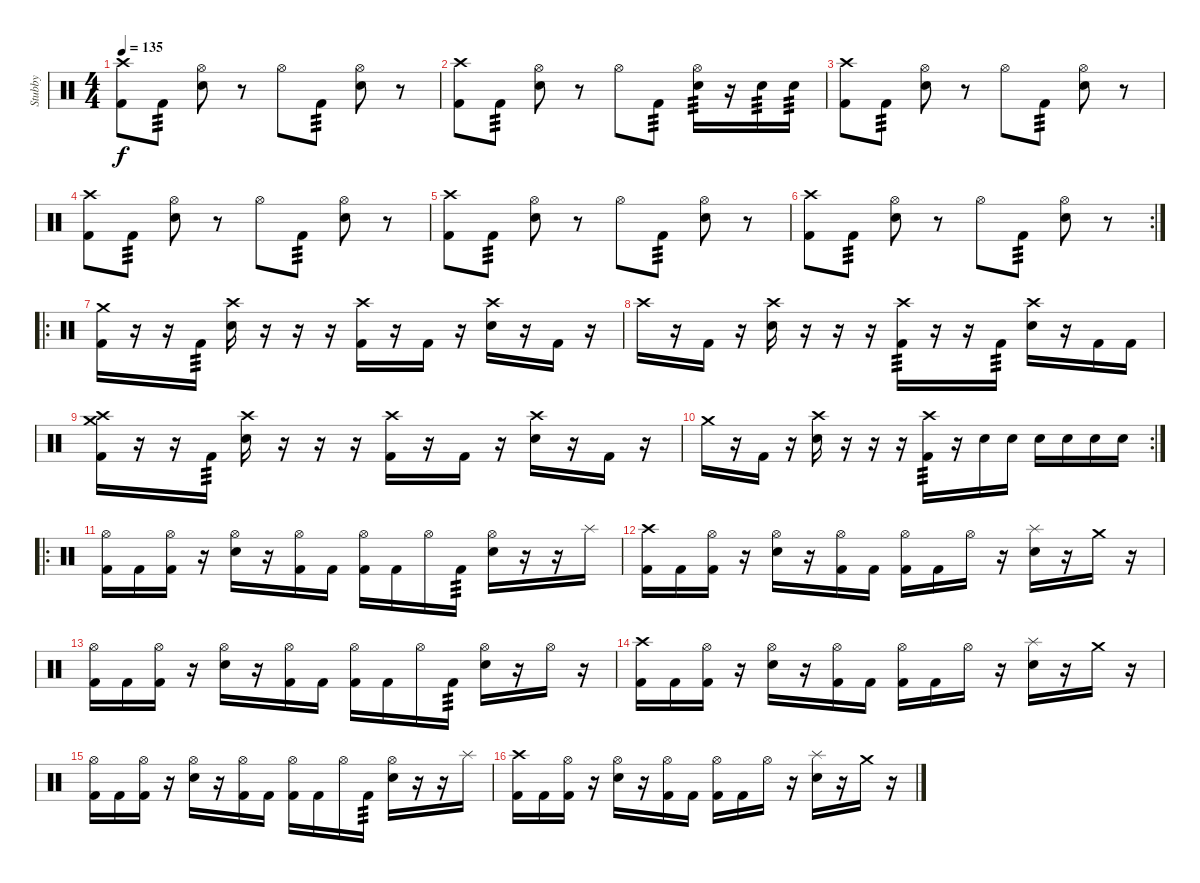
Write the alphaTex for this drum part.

\track ("Stubby" "Stubby") {instrument percussion}
\staff {score}
\articulation defaults
\ts (4 4)
\tempo 135
\clef neutral
\ks c
("Crash high (hit)" "Kick (hit) 2").8{dy f} "Kick (hit) 2".8{tp 3} ("Hi-Hat (open)" "Electric Snare (hit)").8 r.8 "Hi-Hat (open)".8 "Kick (hit) 2".8{tp 3} ("Hi-Hat (open)" "Electric Snare (hit)").8 r.8 |
("Crash high (hit)" "Kick (hit) 2").8 "Kick (hit) 2".8{tp 3} ("Hi-Hat (open)" "Electric Snare (hit)").8 r.8 "Hi-Hat (open)".8 "Kick (hit) 2".8{tp 3} ("Hi-Hat (open)" "Electric Snare (hit)").16{tp 3} r.16 "Electric Snare (hit)".16{tp 3} "Electric Snare (hit)".16{tp 3} |
("Crash high (hit)" "Kick (hit) 2").8 "Kick (hit) 2".8{tp 3} ("Hi-Hat (open)" "Electric Snare (hit)").8 r.8 "Hi-Hat (open)".8 "Kick (hit) 2".8{tp 3} ("Hi-Hat (open)" "Electric Snare (hit)").8 r.8 |
("Crash high (hit)" "Kick (hit) 2").8 "Kick (hit) 2".8{tp 3} ("Hi-Hat (open)" "Electric Snare (hit)").8 r.8 "Hi-Hat (open)".8 "Kick (hit) 2".8{tp 3} ("Hi-Hat (open)" "Electric Snare (hit)").8 r.8 |
("Crash high (hit)" "Kick (hit) 2").8 "Kick (hit) 2".8{tp 3} ("Hi-Hat (open)" "Electric Snare (hit)").8 r.8 "Hi-Hat (open)".8 "Kick (hit) 2".8{tp 3} ("Hi-Hat (open)" "Electric Snare (hit)").8 r.8 |
\rc 2
("Crash high (hit)" "Kick (hit) 2").8 "Kick (hit) 2".8{tp 3} ("Hi-Hat (open)" "Electric Snare (hit)").8 r.8 "Hi-Hat (open)".8 "Kick (hit) 2".8{tp 3} ("Hi-Hat (open)" "Electric Snare (hit)").8 r.8 |
\ro
("Crash medium (hit)" "Kick (hit) 2").16 r.16 r.16 "Kick (hit) 2".16{tp 3} ("Crash high (hit)" "Electric Snare (hit)").16 r.16 r.16 r.16 ("Crash high (hit)" "Kick (hit) 2").16 r.16 "Kick (hit) 2".16 r.16 ("Crash high (hit)" "Electric Snare (hit)").16 r.16 "Kick (hit) 2".16 r.16 |
"Crash high (hit)".16 r.16 "Kick (hit) 2".16 r.16 ("Crash high (hit)" "Electric Snare (hit)").16 r.16 r.16 r.16 ("Crash high (hit)" "Kick (hit) 2").16{tp 3} r.16 r.16 "Kick (hit) 2".16{tp 3} ("Crash high (hit)" "Electric Snare (hit)").16 r.16 "Kick (hit) 2".16 "Kick (hit) 2".16 |
("Crash medium (hit)" "Crash high (hit)" "Kick (hit) 2").16 r.16 r.16 "Kick (hit) 2".16{tp 3} ("Crash high (hit)" "Electric Snare (hit)").16 r.16 r.16 r.16 ("Crash high (hit)" "Kick (hit) 2").16 r.16 "Kick (hit) 2".16 r.16 ("Crash high (hit)" "Electric Snare (hit)").16 r.16 "Kick (hit) 2".16 r.16 |
\rc 2 "Crash medium (hit)".16
r.16 "Kick (hit) 2".16 r.16 ("Crash high (hit)" "Electric Snare (hit)").16 r.16 r.16 r.16 ("Crash high (hit)" "Kick (hit) 2").16{tp 3} r.16 "Electric Snare (hit)".16 "Electric Snare (hit)".16 "Electric Snare (hit)".16 "Electric Snare (hit)".16 "Electric Snare (hit)".16 "Electric Snare (hit)".16 |
\ro
("Hi-Hat (open)" "Kick (hit) 2").16 "Kick (hit) 2".16 ("Hi-Hat (open)" "Kick (hit) 2").16 r.16 ("Hi-Hat (open)" "Electric Snare (hit)").16 r.16 ("Hi-Hat (open)" "Kick (hit) 2").16 "Kick (hit) 2".16 ("Hi-Hat (open)" "Kick (hit) 2").16 "Kick (hit) 2".16 "Hi-Hat (open)".16 "Kick (hit) 2".16{tp 3} ("Hi-Hat (open)" "Electric Snare (hit)").16 r.16 r.16 "Splash (hit)".16 |
("Crash high (hit)" "Kick (hit) 2").16 "Kick (hit) 2".16 ("Hi-Hat (open)" "Kick (hit) 2").16 r.16 ("Hi-Hat (open)" "Electric Snare (hit)").16 r.16 ("Hi-Hat (open)" "Kick (hit) 2").16 "Kick (hit) 2".16 ("Hi-Hat (open)" "Kick (hit) 2").16 "Kick (hit) 2".16 "Hi-Hat (open)".16 r.16 ("Splash (hit)" "Electric Snare (hit)").16 r.16 "Crash medium (hit)".16 r.16 |
("Hi-Hat (open)" "Kick (hit) 2").16 "Kick (hit) 2".16 ("Hi-Hat (open)" "Kick (hit) 2").16 r.16 ("Hi-Hat (open)" "Electric Snare (hit)").16 r.16 ("Hi-Hat (open)" "Kick (hit) 2").16 "Kick (hit) 2".16 ("Hi-Hat (open)" "Kick (hit) 2").16 "Kick (hit) 2".16 "Hi-Hat (open)".16 "Kick (hit) 2".16{tp 3} ("Hi-Hat (open)" "Electric Snare (hit)").16 r.16 "Hi-Hat (open)".16 r.16 |
("Crash high (hit)" "Kick (hit) 2").16 "Kick (hit) 2".16 ("Hi-Hat (open)" "Kick (hit) 2").16 r.16 ("Hi-Hat (open)" "Electric Snare (hit)").16 r.16 ("Hi-Hat (open)" "Kick (hit) 2").16 "Kick (hit) 2".16 ("Hi-Hat (open)" "Kick (hit) 2").16 "Kick (hit) 2".16 "Hi-Hat (open)".16 r.16 ("Splash (hit)" "Electric Snare (hit)").16 r.16 "Crash medium (hit)".16 r.16 |
("Hi-Hat (open)" "Kick (hit) 2").16 "Kick (hit) 2".16 ("Hi-Hat (open)" "Kick (hit) 2").16 r.16 ("Hi-Hat (open)" "Electric Snare (hit)").16 r.16 ("Hi-Hat (open)" "Kick (hit) 2").16 "Kick (hit) 2".16 ("Hi-Hat (open)" "Kick (hit) 2").16 "Kick (hit) 2".16 "Hi-Hat (open)".16 "Kick (hit) 2".16{tp 3} ("Hi-Hat (open)" "Electric Snare (hit)").16 r.16 r.16 "Splash (hit)".16 |
("Crash high (hit)" "Kick (hit) 2").16 "Kick (hit) 2".16 ("Hi-Hat (open)" "Kick (hit) 2").16 r.16 ("Hi-Hat (open)" "Electric Snare (hit)").16 r.16 ("Hi-Hat (open)" "Kick (hit) 2").16 "Kick (hit) 2".16 ("Hi-Hat (open)" "Kick (hit) 2").16 "Kick (hit) 2".16 "Hi-Hat (open)".16 r.16 ("Splash (hit)" "Electric Snare (hit)").16 r.16 "Crash medium (hit)".16 r.16
